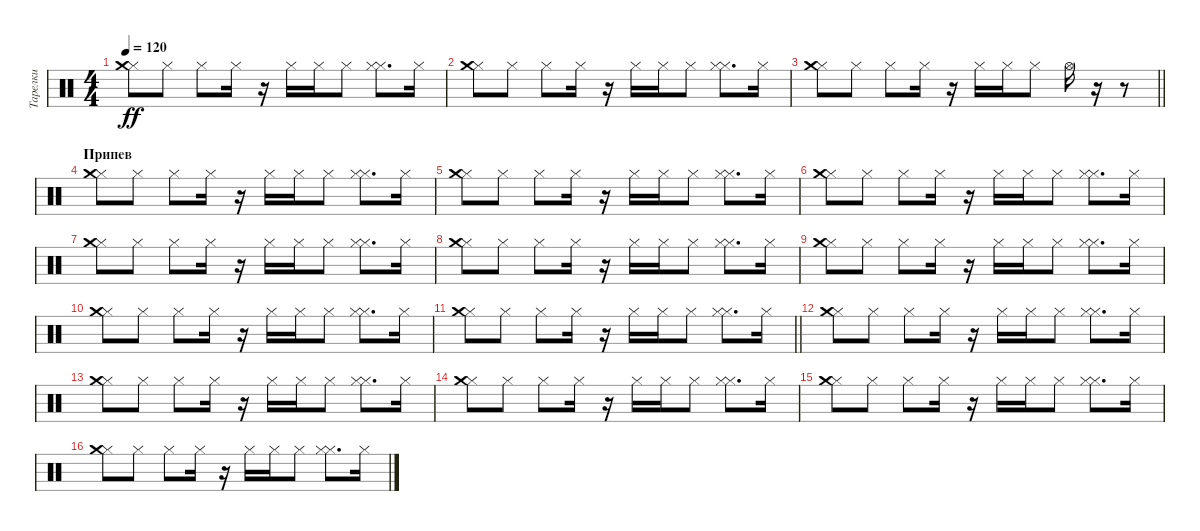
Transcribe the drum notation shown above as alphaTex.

\track ("Тарелки" "Тарелки") {instrument percussion}
\staff {score}
\articulation defaults
\ts (4 4)
\tempo 120
\clef neutral
\ks c
("Hi-Hat (closed)" "Crash medium (hit)").8{dy ff} "Hi-Hat (closed)".8 "Hi-Hat (closed)".8 "Hi-Hat (closed)".16 r.16 "Hi-Hat (closed)".16 "Hi-Hat (closed)".16 "Hi-Hat (closed)".8 ("Hi-Hat (closed)" "Hi-Hat (closed)").8{d} "Hi-Hat (closed)".16 |
("Hi-Hat (closed)" "Crash medium (hit)").8 "Hi-Hat (closed)".8 "Hi-Hat (closed)".8 "Hi-Hat (closed)".16 r.16 "Hi-Hat (closed)".16 "Hi-Hat (closed)".16 "Hi-Hat (closed)".8 ("Hi-Hat (closed)" "Hi-Hat (closed)").8{d} "Hi-Hat (closed)".16 |
\barLineRight lightlight
("Hi-Hat (closed)" "Crash medium (hit)").8 "Hi-Hat (closed)".8 "Hi-Hat (closed)".8 "Hi-Hat (closed)".16 r.16 "Hi-Hat (closed)".16 "Hi-Hat (closed)".16 "Hi-Hat (closed)".8 "Hi-Hat (open)".16 r.16 r.8 |
\section ("" "Припев")
("Hi-Hat (closed)" "Crash medium (hit)").8 "Hi-Hat (closed)".8 "Hi-Hat (closed)".8 "Hi-Hat (closed)".16 r.16 "Hi-Hat (closed)".16 "Hi-Hat (closed)".16 "Hi-Hat (closed)".8 ("Hi-Hat (closed)" "Hi-Hat (closed)").8{d} "Hi-Hat (closed)".16 |
("Hi-Hat (closed)" "Crash medium (hit)").8 "Hi-Hat (closed)".8 "Hi-Hat (closed)".8 "Hi-Hat (closed)".16 r.16 "Hi-Hat (closed)".16 "Hi-Hat (closed)".16 "Hi-Hat (closed)".8 ("Hi-Hat (closed)" "Hi-Hat (closed)").8{d} "Hi-Hat (closed)".16 |
("Hi-Hat (closed)" "Crash medium (hit)").8 "Hi-Hat (closed)".8 "Hi-Hat (closed)".8 "Hi-Hat (closed)".16 r.16 "Hi-Hat (closed)".16 "Hi-Hat (closed)".16 "Hi-Hat (closed)".8 ("Hi-Hat (closed)" "Hi-Hat (closed)").8{d} "Hi-Hat (closed)".16 |
("Hi-Hat (closed)" "Crash medium (hit)").8 "Hi-Hat (closed)".8 "Hi-Hat (closed)".8 "Hi-Hat (closed)".16 r.16 "Hi-Hat (closed)".16 "Hi-Hat (closed)".16 "Hi-Hat (closed)".8 ("Hi-Hat (closed)" "Hi-Hat (closed)").8{d} "Hi-Hat (closed)".16 |
("Hi-Hat (closed)" "Crash medium (hit)").8 "Hi-Hat (closed)".8 "Hi-Hat (closed)".8 "Hi-Hat (closed)".16 r.16 "Hi-Hat (closed)".16 "Hi-Hat (closed)".16 "Hi-Hat (closed)".8 ("Hi-Hat (closed)" "Hi-Hat (closed)").8{d} "Hi-Hat (closed)".16 |
("Hi-Hat (closed)" "Crash medium (hit)").8 "Hi-Hat (closed)".8 "Hi-Hat (closed)".8 "Hi-Hat (closed)".16 r.16 "Hi-Hat (closed)".16 "Hi-Hat (closed)".16 "Hi-Hat (closed)".8 ("Hi-Hat (closed)" "Hi-Hat (closed)").8{d} "Hi-Hat (closed)".16 |
("Hi-Hat (closed)" "Crash medium (hit)").8 "Hi-Hat (closed)".8 "Hi-Hat (closed)".8 "Hi-Hat (closed)".16 r.16 "Hi-Hat (closed)".16 "Hi-Hat (closed)".16 "Hi-Hat (closed)".8 ("Hi-Hat (closed)" "Hi-Hat (closed)").8{d} "Hi-Hat (closed)".16 |
\barLineRight lightlight
("Hi-Hat (closed)" "Crash medium (hit)").8 "Hi-Hat (closed)".8 "Hi-Hat (closed)".8 "Hi-Hat (closed)".16 r.16 "Hi-Hat (closed)".16 "Hi-Hat (closed)".16 "Hi-Hat (closed)".8 ("Hi-Hat (closed)" "Hi-Hat (closed)").8{d} "Hi-Hat (closed)".16 |
("Hi-Hat (closed)" "Crash medium (hit)").8 "Hi-Hat (closed)".8 "Hi-Hat (closed)".8 "Hi-Hat (closed)".16 r.16 "Hi-Hat (closed)".16 "Hi-Hat (closed)".16 "Hi-Hat (closed)".8 ("Hi-Hat (closed)" "Hi-Hat (closed)").8{d} "Hi-Hat (closed)".16 |
("Hi-Hat (closed)" "Crash medium (hit)").8 "Hi-Hat (closed)".8 "Hi-Hat (closed)".8 "Hi-Hat (closed)".16 r.16 "Hi-Hat (closed)".16 "Hi-Hat (closed)".16 "Hi-Hat (closed)".8 ("Hi-Hat (closed)" "Hi-Hat (closed)").8{d} "Hi-Hat (closed)".16 |
("Hi-Hat (closed)" "Crash medium (hit)").8 "Hi-Hat (closed)".8 "Hi-Hat (closed)".8 "Hi-Hat (closed)".16 r.16 "Hi-Hat (closed)".16 "Hi-Hat (closed)".16 "Hi-Hat (closed)".8 ("Hi-Hat (closed)" "Hi-Hat (closed)").8{d} "Hi-Hat (closed)".16 |
("Hi-Hat (closed)" "Crash medium (hit)").8 "Hi-Hat (closed)".8 "Hi-Hat (closed)".8 "Hi-Hat (closed)".16 r.16 "Hi-Hat (closed)".16 "Hi-Hat (closed)".16 "Hi-Hat (closed)".8 ("Hi-Hat (closed)" "Hi-Hat (closed)").8{d} "Hi-Hat (closed)".16 |
("Hi-Hat (closed)" "Crash medium (hit)").8 "Hi-Hat (closed)".8 "Hi-Hat (closed)".8 "Hi-Hat (closed)".16 r.16 "Hi-Hat (closed)".16 "Hi-Hat (closed)".16 "Hi-Hat (closed)".8 ("Hi-Hat (closed)" "Hi-Hat (closed)").8{d} "Hi-Hat (closed)".16
